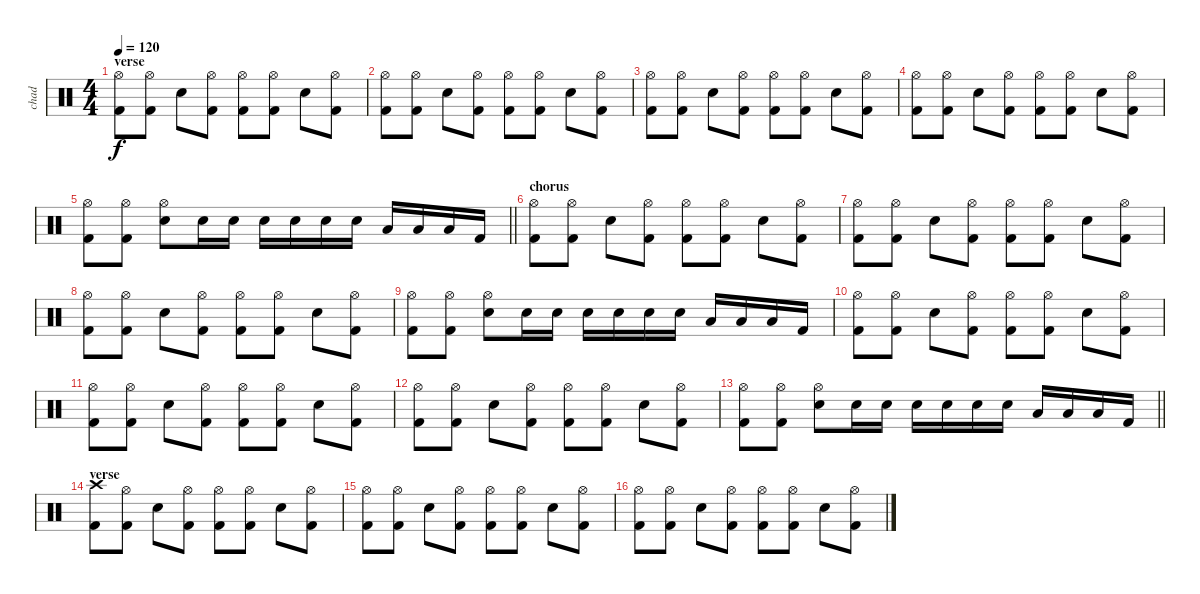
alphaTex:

\track ("chad" "chad") {instrument percussion}
\staff {score}
\articulation defaults
\ts (4 4)
\section ("" "verse")
\tempo 120
\clef neutral
\ks c
("Hi-Hat (open)" "Kick (hit) 2").8{dy f} ("Hi-Hat (open)" "Kick (hit) 2").8 "Electric Snare (hit)".8 ("Hi-Hat (open)" "Kick (hit) 2").8 ("Hi-Hat (open)" "Kick (hit) 2").8 ("Hi-Hat (open)" "Kick (hit) 2").8 "Electric Snare (hit)".8 ("Hi-Hat (open)" "Kick (hit) 2").8 |
("Hi-Hat (open)" "Kick (hit) 2").8 ("Hi-Hat (open)" "Kick (hit) 2").8 "Electric Snare (hit)".8 ("Hi-Hat (open)" "Kick (hit) 2").8 ("Hi-Hat (open)" "Kick (hit) 2").8 ("Hi-Hat (open)" "Kick (hit) 2").8 "Electric Snare (hit)".8 ("Hi-Hat (open)" "Kick (hit) 2").8 |
("Hi-Hat (open)" "Kick (hit) 2").8 ("Hi-Hat (open)" "Kick (hit) 2").8 "Electric Snare (hit)".8 ("Hi-Hat (open)" "Kick (hit) 2").8 ("Hi-Hat (open)" "Kick (hit) 2").8 ("Hi-Hat (open)" "Kick (hit) 2").8 "Electric Snare (hit)".8 ("Hi-Hat (open)" "Kick (hit) 2").8 |
("Hi-Hat (open)" "Kick (hit) 2").8 ("Hi-Hat (open)" "Kick (hit) 2").8 "Electric Snare (hit)".8 ("Hi-Hat (open)" "Kick (hit) 2").8 ("Hi-Hat (open)" "Kick (hit) 2").8 ("Hi-Hat (open)" "Kick (hit) 2").8 "Electric Snare (hit)".8 ("Hi-Hat (open)" "Kick (hit) 2").8 |
\barLineRight lightlight
("Hi-Hat (open)" "Kick (hit) 2").8 ("Hi-Hat (open)" "Kick (hit) 2").8 ("Hi-Hat (open)" "Electric Snare (hit)").8 "Snare (hit) 2".16 "Snare (hit) 2".16 "Snare (hit) 2".16 "Electric Snare (hit)".16 "Electric Snare (hit)".16 "Electric Snare (hit)".16 "Low Tom (hit)".16 "Low Tom (hit)".16 "Low Tom (hit)".16 "Kick (hit) 2".16 |
\section ("" "chorus")
("Hi-Hat (open)" "Kick (hit) 2").8 ("Hi-Hat (open)" "Kick (hit) 2").8 "Electric Snare (hit)".8 ("Hi-Hat (open)" "Kick (hit) 2").8 ("Hi-Hat (open)" "Kick (hit) 2").8 ("Hi-Hat (open)" "Kick (hit) 2").8 "Electric Snare (hit)".8 ("Hi-Hat (open)" "Kick (hit) 2").8 |
("Hi-Hat (open)" "Kick (hit) 2").8 ("Hi-Hat (open)" "Kick (hit) 2").8 "Electric Snare (hit)".8 ("Hi-Hat (open)" "Kick (hit) 2").8 ("Hi-Hat (open)" "Kick (hit) 2").8 ("Hi-Hat (open)" "Kick (hit) 2").8 "Electric Snare (hit)".8 ("Hi-Hat (open)" "Kick (hit) 2").8 |
("Hi-Hat (open)" "Kick (hit) 2").8 ("Hi-Hat (open)" "Kick (hit) 2").8 "Electric Snare (hit)".8 ("Hi-Hat (open)" "Kick (hit) 2").8 ("Hi-Hat (open)" "Kick (hit) 2").8 ("Hi-Hat (open)" "Kick (hit) 2").8 "Electric Snare (hit)".8 ("Hi-Hat (open)" "Kick (hit) 2").8 |
("Hi-Hat (open)" "Kick (hit) 2").8 ("Hi-Hat (open)" "Kick (hit) 2").8 ("Hi-Hat (open)" "Electric Snare (hit)").8 "Snare (hit) 2".16 "Snare (hit) 2".16 "Snare (hit) 2".16 "Electric Snare (hit)".16 "Electric Snare (hit)".16 "Electric Snare (hit)".16 "Low Tom (hit)".16 "Low Tom (hit)".16 "Low Tom (hit)".16 "Kick (hit) 2".16 |
("Hi-Hat (open)" "Kick (hit) 2").8 ("Hi-Hat (open)" "Kick (hit) 2").8 "Electric Snare (hit)".8 ("Hi-Hat (open)" "Kick (hit) 2").8 ("Hi-Hat (open)" "Kick (hit) 2").8 ("Hi-Hat (open)" "Kick (hit) 2").8 "Electric Snare (hit)".8 ("Hi-Hat (open)" "Kick (hit) 2").8 |
("Hi-Hat (open)" "Kick (hit) 2").8 ("Hi-Hat (open)" "Kick (hit) 2").8 "Electric Snare (hit)".8 ("Hi-Hat (open)" "Kick (hit) 2").8 ("Hi-Hat (open)" "Kick (hit) 2").8 ("Hi-Hat (open)" "Kick (hit) 2").8 "Electric Snare (hit)".8 ("Hi-Hat (open)" "Kick (hit) 2").8 |
("Hi-Hat (open)" "Kick (hit) 2").8 ("Hi-Hat (open)" "Kick (hit) 2").8 "Electric Snare (hit)".8 ("Hi-Hat (open)" "Kick (hit) 2").8 ("Hi-Hat (open)" "Kick (hit) 2").8 ("Hi-Hat (open)" "Kick (hit) 2").8 "Electric Snare (hit)".8 ("Hi-Hat (open)" "Kick (hit) 2").8 |
\barLineRight lightlight
("Hi-Hat (open)" "Kick (hit) 2").8 ("Hi-Hat (open)" "Kick (hit) 2").8 ("Hi-Hat (open)" "Electric Snare (hit)").8 "Snare (hit) 2".16 "Snare (hit) 2".16 "Snare (hit) 2".16 "Electric Snare (hit)".16 "Electric Snare (hit)".16 "Electric Snare (hit)".16 "Low Tom (hit)".16 "Low Tom (hit)".16 "Low Tom (hit)".16 "Kick (hit) 2".16 |
\section ("" "verse")
("Crash high (hit)" "Kick (hit) 2").8 ("Hi-Hat (open)" "Kick (hit) 2").8 "Electric Snare (hit)".8 ("Hi-Hat (open)" "Kick (hit) 2").8 ("Hi-Hat (open)" "Kick (hit) 2").8 ("Hi-Hat (open)" "Kick (hit) 2").8 "Electric Snare (hit)".8 ("Hi-Hat (open)" "Kick (hit) 2").8 |
("Hi-Hat (open)" "Kick (hit) 2").8 ("Hi-Hat (open)" "Kick (hit) 2").8 "Electric Snare (hit)".8 ("Hi-Hat (open)" "Kick (hit) 2").8 ("Hi-Hat (open)" "Kick (hit) 2").8 ("Hi-Hat (open)" "Kick (hit) 2").8 "Electric Snare (hit)".8 ("Hi-Hat (open)" "Kick (hit) 2").8 |
("Hi-Hat (open)" "Kick (hit) 2").8 ("Hi-Hat (open)" "Kick (hit) 2").8 "Electric Snare (hit)".8 ("Hi-Hat (open)" "Kick (hit) 2").8 ("Hi-Hat (open)" "Kick (hit) 2").8 ("Hi-Hat (open)" "Kick (hit) 2").8 "Electric Snare (hit)".8 ("Hi-Hat (open)" "Kick (hit) 2").8
